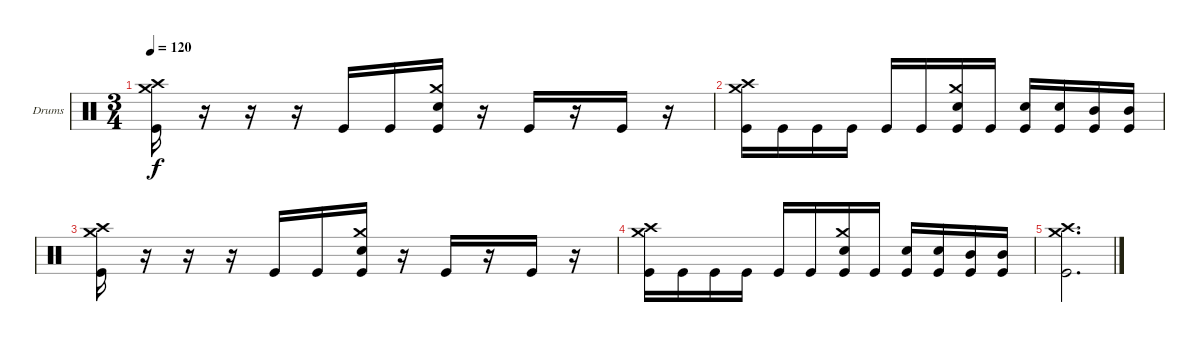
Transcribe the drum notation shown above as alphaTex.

\defaultSystemsLayout 4
\bracketExtendMode groupsimilarinstruments
\firstSystemTrackNameOrientation horizontal
\otherSystemsTrackNameOrientation horizontal
\track ("Drumkit" "Drums") {instrument percussion}
\staff {score}
\articulation defaults
\ts (3 4)
\tempo 120
\clef neutral
\ks c
("Kick (hit)" "Crash medium (hit)" "Crash high (hit)").16{dy f} r.16 r.16 r.16 "Kick (hit)".16 "Kick (hit)".16 ("Kick (hit)" "Snare (hit) 2" "Crash medium (hit)").16 r.16 "Kick (hit)".16 r.16 "Kick (hit)".16 r.16 |
("Kick (hit)" "Crash medium (hit)" "Crash high (hit)").16 "Kick (hit)".16 "Kick (hit)".16 "Kick (hit)".16 "Kick (hit)".16 "Kick (hit)".16 ("Kick (hit)" "Crash medium (hit)" "Snare (hit) 2").16 "Kick (hit)".16 ("Kick (hit)" "Snare (hit) 2").16 ("Kick (hit)" "Snare (hit) 2").16 ("Kick (hit)" "Mid Tom (hit)").16 ("Kick (hit)" "Mid Tom (hit)").16 |
("Kick (hit)" "Crash medium (hit)" "Crash high (hit)").16 r.16 r.16 r.16 "Kick (hit)".16 "Kick (hit)".16 ("Kick (hit)" "Snare (hit) 2" "Crash medium (hit)").16 r.16 "Kick (hit)".16 r.16 "Kick (hit)".16 r.16 |
("Kick (hit)" "Crash medium (hit)" "Crash high (hit)").16 "Kick (hit)".16 "Kick (hit)".16 "Kick (hit)".16 "Kick (hit)".16 "Kick (hit)".16 ("Kick (hit)" "Crash medium (hit)" "Snare (hit) 2").16 "Kick (hit)".16 ("Kick (hit)" "Snare (hit) 2").16 ("Kick (hit)" "Snare (hit) 2").16 ("Kick (hit)" "Mid Tom (hit)").16 ("Kick (hit)" "Mid Tom (hit)").16 |
("Crash medium (hit)" "Crash high (hit)" "Kick (hit)").2{d}
